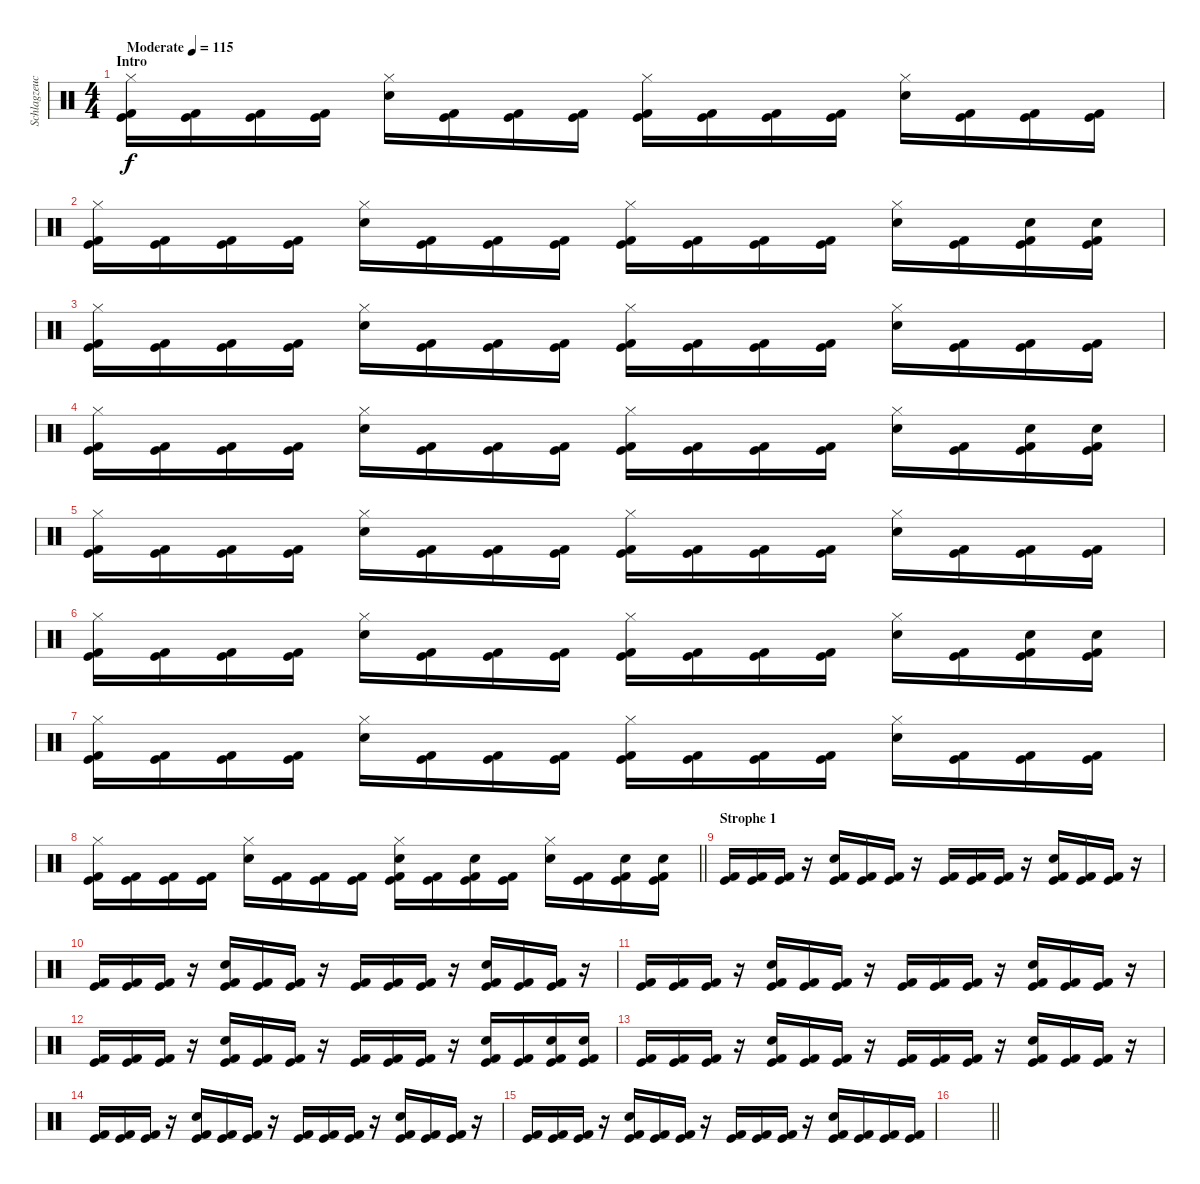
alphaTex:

\track ("Schlagzeuch" "Schlagzeuc") {instrument percussion}
\staff {score}
\articulation defaults
\ts (4 4)
\section ("" "Intro")
\tempo (115 "Moderate")
\clef neutral
\ks c
("Hi-Hat (closed)" "Kick (hit)" "Kick (hit) 2").16{dy f} ("Kick (hit)" "Kick (hit) 2").16 ("Kick (hit)" "Kick (hit) 2").16 ("Kick (hit)" "Kick (hit) 2").16 ("Hi-Hat (closed)" "Electric Snare (hit)").16 ("Kick (hit)" "Kick (hit) 2").16 ("Kick (hit)" "Kick (hit) 2").16 ("Kick (hit)" "Kick (hit) 2").16 ("Hi-Hat (closed)" "Kick (hit)" "Kick (hit) 2").16 ("Kick (hit)" "Kick (hit) 2").16 ("Kick (hit)" "Kick (hit) 2").16 ("Kick (hit)" "Kick (hit) 2").16 ("Hi-Hat (closed)" "Electric Snare (hit)").16 ("Kick (hit)" "Kick (hit) 2").16 ("Kick (hit)" "Kick (hit) 2").16 ("Kick (hit)" "Kick (hit) 2").16 |
("Hi-Hat (closed)" "Kick (hit)" "Kick (hit) 2").16 ("Kick (hit)" "Kick (hit) 2").16 ("Kick (hit)" "Kick (hit) 2").16 ("Kick (hit)" "Kick (hit) 2").16 ("Hi-Hat (closed)" "Electric Snare (hit)").16 ("Kick (hit)" "Kick (hit) 2").16 ("Kick (hit)" "Kick (hit) 2").16 ("Kick (hit)" "Kick (hit) 2").16 ("Hi-Hat (closed)" "Kick (hit)" "Kick (hit) 2").16 ("Kick (hit)" "Kick (hit) 2").16 ("Kick (hit)" "Kick (hit) 2").16 ("Kick (hit)" "Kick (hit) 2").16 ("Hi-Hat (closed)" "Electric Snare (hit)").16 ("Kick (hit)" "Kick (hit) 2").16 ("Kick (hit)" "Kick (hit) 2" "Electric Snare (hit)").16 ("Kick (hit)" "Kick (hit) 2" "Electric Snare (hit)").16 |
("Hi-Hat (closed)" "Kick (hit)" "Kick (hit) 2").16 ("Kick (hit)" "Kick (hit) 2").16 ("Kick (hit)" "Kick (hit) 2").16 ("Kick (hit)" "Kick (hit) 2").16 ("Hi-Hat (closed)" "Electric Snare (hit)").16 ("Kick (hit)" "Kick (hit) 2").16 ("Kick (hit)" "Kick (hit) 2").16 ("Kick (hit)" "Kick (hit) 2").16 ("Hi-Hat (closed)" "Kick (hit)" "Kick (hit) 2").16 ("Kick (hit)" "Kick (hit) 2").16 ("Kick (hit)" "Kick (hit) 2").16 ("Kick (hit)" "Kick (hit) 2").16 ("Hi-Hat (closed)" "Electric Snare (hit)").16 ("Kick (hit)" "Kick (hit) 2").16 ("Kick (hit)" "Kick (hit) 2").16 ("Kick (hit)" "Kick (hit) 2").16 |
("Hi-Hat (closed)" "Kick (hit)" "Kick (hit) 2").16 ("Kick (hit)" "Kick (hit) 2").16 ("Kick (hit)" "Kick (hit) 2").16 ("Kick (hit)" "Kick (hit) 2").16 ("Hi-Hat (closed)" "Electric Snare (hit)").16 ("Kick (hit)" "Kick (hit) 2").16 ("Kick (hit)" "Kick (hit) 2").16 ("Kick (hit)" "Kick (hit) 2").16 ("Hi-Hat (closed)" "Kick (hit)" "Kick (hit) 2").16 ("Kick (hit)" "Kick (hit) 2").16 ("Kick (hit)" "Kick (hit) 2").16 ("Kick (hit)" "Kick (hit) 2").16 ("Hi-Hat (closed)" "Electric Snare (hit)").16 ("Kick (hit)" "Kick (hit) 2").16 ("Kick (hit)" "Kick (hit) 2" "Electric Snare (hit)").16 ("Kick (hit)" "Kick (hit) 2" "Electric Snare (hit)").16 |
("Hi-Hat (closed)" "Kick (hit)" "Kick (hit) 2").16 ("Kick (hit)" "Kick (hit) 2").16 ("Kick (hit)" "Kick (hit) 2").16 ("Kick (hit)" "Kick (hit) 2").16 ("Hi-Hat (closed)" "Electric Snare (hit)").16 ("Kick (hit)" "Kick (hit) 2").16 ("Kick (hit)" "Kick (hit) 2").16 ("Kick (hit)" "Kick (hit) 2").16 ("Hi-Hat (closed)" "Kick (hit)" "Kick (hit) 2").16 ("Kick (hit)" "Kick (hit) 2").16 ("Kick (hit)" "Kick (hit) 2").16 ("Kick (hit)" "Kick (hit) 2").16 ("Hi-Hat (closed)" "Electric Snare (hit)").16 ("Kick (hit)" "Kick (hit) 2").16 ("Kick (hit)" "Kick (hit) 2").16 ("Kick (hit)" "Kick (hit) 2").16 |
("Hi-Hat (closed)" "Kick (hit)" "Kick (hit) 2").16 ("Kick (hit)" "Kick (hit) 2").16 ("Kick (hit)" "Kick (hit) 2").16 ("Kick (hit)" "Kick (hit) 2").16 ("Hi-Hat (closed)" "Electric Snare (hit)").16 ("Kick (hit)" "Kick (hit) 2").16 ("Kick (hit)" "Kick (hit) 2").16 ("Kick (hit)" "Kick (hit) 2").16 ("Hi-Hat (closed)" "Kick (hit)" "Kick (hit) 2").16 ("Kick (hit)" "Kick (hit) 2").16 ("Kick (hit)" "Kick (hit) 2").16 ("Kick (hit)" "Kick (hit) 2").16 ("Hi-Hat (closed)" "Electric Snare (hit)").16 ("Kick (hit)" "Kick (hit) 2").16 ("Kick (hit)" "Kick (hit) 2" "Electric Snare (hit)").16 ("Kick (hit)" "Kick (hit) 2" "Electric Snare (hit)").16 |
("Hi-Hat (closed)" "Kick (hit)" "Kick (hit) 2").16 ("Kick (hit)" "Kick (hit) 2").16 ("Kick (hit)" "Kick (hit) 2").16 ("Kick (hit)" "Kick (hit) 2").16 ("Hi-Hat (closed)" "Electric Snare (hit)").16 ("Kick (hit)" "Kick (hit) 2").16 ("Kick (hit)" "Kick (hit) 2").16 ("Kick (hit)" "Kick (hit) 2").16 ("Hi-Hat (closed)" "Kick (hit)" "Kick (hit) 2").16 ("Kick (hit)" "Kick (hit) 2").16 ("Kick (hit)" "Kick (hit) 2").16 ("Kick (hit)" "Kick (hit) 2").16 ("Hi-Hat (closed)" "Electric Snare (hit)").16 ("Kick (hit)" "Kick (hit) 2").16 ("Kick (hit)" "Kick (hit) 2").16 ("Kick (hit)" "Kick (hit) 2").16 |
\barLineRight lightlight
("Hi-Hat (closed)" "Kick (hit)" "Kick (hit) 2").16 ("Kick (hit)" "Kick (hit) 2").16 ("Kick (hit)" "Kick (hit) 2").16 ("Kick (hit)" "Kick (hit) 2").16 ("Hi-Hat (closed)" "Electric Snare (hit)").16 ("Kick (hit)" "Kick (hit) 2").16 ("Kick (hit)" "Kick (hit) 2").16 ("Kick (hit)" "Kick (hit) 2").16 ("Hi-Hat (closed)" "Kick (hit)" "Kick (hit) 2" "Electric Snare (hit)").16 ("Kick (hit)" "Kick (hit) 2").16 ("Kick (hit)" "Kick (hit) 2" "Electric Snare (hit)").16 ("Kick (hit)" "Kick (hit) 2").16 ("Hi-Hat (closed)" "Electric Snare (hit)").16 ("Kick (hit)" "Kick (hit) 2").16 ("Kick (hit)" "Kick (hit) 2" "Electric Snare (hit)").16 ("Kick (hit)" "Kick (hit) 2" "Electric Snare (hit)").16 |
\section ("" "Strophe 1")
("Kick (hit)" "Kick (hit) 2").16 ("Kick (hit)" "Kick (hit) 2").16 ("Kick (hit)" "Kick (hit) 2").16 r.16 ("Kick (hit)" "Kick (hit) 2" "Electric Snare (hit)").16 ("Kick (hit)" "Kick (hit) 2").16 ("Kick (hit)" "Kick (hit) 2").16 r.16 ("Kick (hit)" "Kick (hit) 2").16 ("Kick (hit)" "Kick (hit) 2").16 ("Kick (hit)" "Kick (hit) 2").16 r.16 ("Kick (hit)" "Kick (hit) 2" "Electric Snare (hit)").16 ("Kick (hit)" "Kick (hit) 2").16 ("Kick (hit)" "Kick (hit) 2").16 r.16 |
("Kick (hit)" "Kick (hit) 2").16 ("Kick (hit)" "Kick (hit) 2").16 ("Kick (hit)" "Kick (hit) 2").16 r.16 ("Kick (hit)" "Kick (hit) 2" "Electric Snare (hit)").16 ("Kick (hit)" "Kick (hit) 2").16 ("Kick (hit)" "Kick (hit) 2").16 r.16 ("Kick (hit)" "Kick (hit) 2").16 ("Kick (hit)" "Kick (hit) 2").16 ("Kick (hit)" "Kick (hit) 2").16 r.16 ("Kick (hit)" "Kick (hit) 2" "Electric Snare (hit)").16 ("Kick (hit)" "Kick (hit) 2").16 ("Kick (hit)" "Kick (hit) 2").16 r.16 |
("Kick (hit)" "Kick (hit) 2").16 ("Kick (hit)" "Kick (hit) 2").16 ("Kick (hit)" "Kick (hit) 2").16 r.16 ("Kick (hit)" "Kick (hit) 2" "Electric Snare (hit)").16 ("Kick (hit)" "Kick (hit) 2").16 ("Kick (hit)" "Kick (hit) 2").16 r.16 ("Kick (hit)" "Kick (hit) 2").16 ("Kick (hit)" "Kick (hit) 2").16 ("Kick (hit)" "Kick (hit) 2").16 r.16 ("Kick (hit)" "Kick (hit) 2" "Electric Snare (hit)").16 ("Kick (hit)" "Kick (hit) 2").16 ("Kick (hit)" "Kick (hit) 2").16 r.16 |
("Kick (hit)" "Kick (hit) 2").16 ("Kick (hit)" "Kick (hit) 2").16 ("Kick (hit)" "Kick (hit) 2").16 r.16 ("Kick (hit)" "Kick (hit) 2" "Electric Snare (hit)").16 ("Kick (hit)" "Kick (hit) 2").16 ("Kick (hit)" "Kick (hit) 2").16 r.16 ("Kick (hit)" "Kick (hit) 2").16 ("Kick (hit)" "Kick (hit) 2").16 ("Kick (hit)" "Kick (hit) 2").16 r.16 ("Kick (hit)" "Kick (hit) 2" "Electric Snare (hit)").16 ("Kick (hit)" "Kick (hit) 2").16 ("Kick (hit)" "Kick (hit) 2" "Electric Snare (hit)").16 ("Kick (hit)" "Kick (hit) 2" "Electric Snare (hit)").16 |
("Kick (hit)" "Kick (hit) 2").16 ("Kick (hit)" "Kick (hit) 2").16 ("Kick (hit)" "Kick (hit) 2").16 r.16 ("Kick (hit)" "Kick (hit) 2" "Electric Snare (hit)").16 ("Kick (hit)" "Kick (hit) 2").16 ("Kick (hit)" "Kick (hit) 2").16 r.16 ("Kick (hit)" "Kick (hit) 2").16 ("Kick (hit)" "Kick (hit) 2").16 ("Kick (hit)" "Kick (hit) 2").16 r.16 ("Kick (hit)" "Kick (hit) 2" "Electric Snare (hit)").16 ("Kick (hit)" "Kick (hit) 2").16 ("Kick (hit)" "Kick (hit) 2").16 r.16 |
("Kick (hit)" "Kick (hit) 2").16 ("Kick (hit)" "Kick (hit) 2").16 ("Kick (hit)" "Kick (hit) 2").16 r.16 ("Kick (hit)" "Kick (hit) 2" "Electric Snare (hit)").16 ("Kick (hit)" "Kick (hit) 2").16 ("Kick (hit)" "Kick (hit) 2").16 r.16 ("Kick (hit)" "Kick (hit) 2").16 ("Kick (hit)" "Kick (hit) 2").16 ("Kick (hit)" "Kick (hit) 2").16 r.16 ("Kick (hit)" "Kick (hit) 2" "Electric Snare (hit)").16 ("Kick (hit)" "Kick (hit) 2").16 ("Kick (hit)" "Kick (hit) 2").16 r.16 |
("Kick (hit)" "Kick (hit) 2").16 ("Kick (hit)" "Kick (hit) 2").16 ("Kick (hit)" "Kick (hit) 2").16 r.16 ("Kick (hit)" "Kick (hit) 2" "Electric Snare (hit)").16 ("Kick (hit)" "Kick (hit) 2").16 ("Kick (hit)" "Kick (hit) 2").16 r.16 ("Kick (hit)" "Kick (hit) 2").16 ("Kick (hit)" "Kick (hit) 2").16 ("Kick (hit)" "Kick (hit) 2").16 r.16 ("Kick (hit)" "Kick (hit) 2" "Electric Snare (hit)").16 ("Kick (hit)" "Kick (hit) 2").16 ("Kick (hit)" "Kick (hit) 2").16 ("Kick (hit)" "Kick (hit) 2").16 |
\barLineRight lightlight
